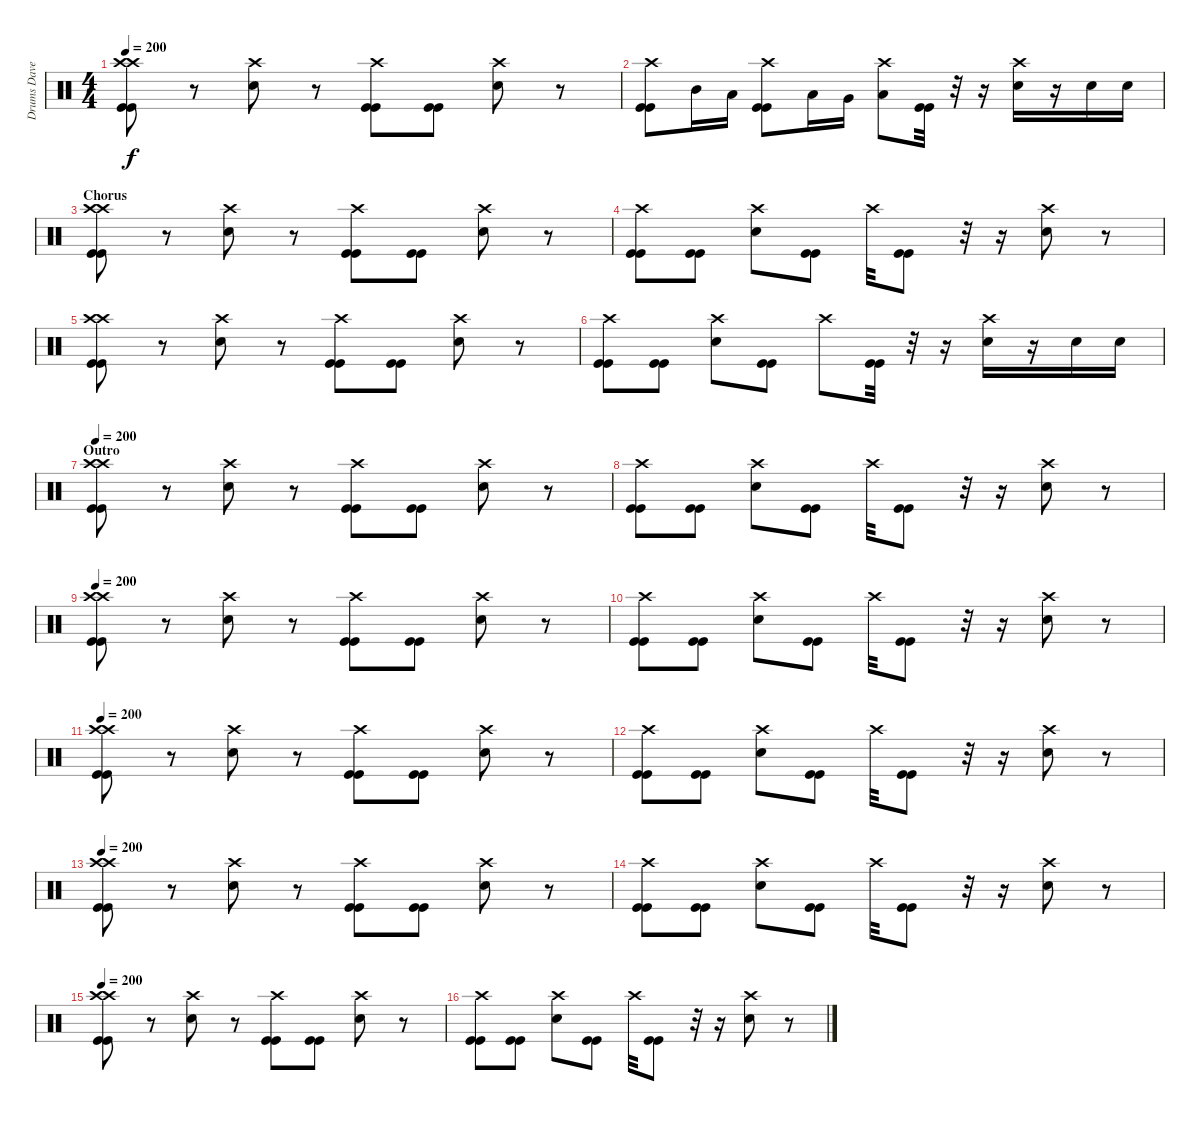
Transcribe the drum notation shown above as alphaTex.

\track ("Drums Dave Grohl" "Drums Dave") {instrument percussion}
\staff {score}
\articulation defaults
\ts (4 4)
\tempo 200
\clef neutral
\ks c
("Crash high (hit)" "Crash high (hit)" "Kick (hit)" "Kick (hit)").8{dy f} r.8 ("Crash high (hit)" "Electric Snare (hit)").8 r.8 ("Crash high (hit)" "Kick (hit)" "Kick (hit)").8 ("Kick (hit)" "Kick (hit)").8 ("Crash high (hit)" "Electric Snare (hit)").8 r.8 |
("Crash high (hit)" "Kick (hit)" "Kick (hit)").8 "Mid Tom (hit)".16 "Low Tom (hit)".16 ("Crash high (hit)" "Kick (hit)" "Kick (hit)").8 "Low Tom (hit)".16 "Very Low Tom (hit)".16 ("Crash high (hit)" "Low Tom (hit)").8 ("Kick (hit)" "Kick (hit)").32 r.32 r.16 ("Crash high (hit)" "Electric Snare (hit)").16 r.16 "Electric Snare (hit)".16 "Electric Snare (hit)".16 |
\section ("" "Chorus")
("Crash high (hit)" "Crash high (hit)" "Kick (hit)" "Kick (hit)").8 r.8 ("Crash high (hit)" "Electric Snare (hit)").8 r.8 ("Crash high (hit)" "Kick (hit)" "Kick (hit)").8 ("Kick (hit)" "Kick (hit)").8 ("Crash high (hit)" "Electric Snare (hit)").8 r.8 |
("Crash high (hit)" "Kick (hit)" "Kick (hit)").8 ("Kick (hit)" "Kick (hit)").8 ("Crash high (hit)" "Electric Snare (hit)").8 ("Kick (hit)" "Kick (hit)").8 "Crash high (hit)".32 ("Kick (hit)" "Kick (hit)").8 r.32 r.16 ("Crash high (hit)" "Electric Snare (hit)").8 r.8 |
("Crash high (hit)" "Crash high (hit)" "Kick (hit)" "Kick (hit)").8 r.8 ("Crash high (hit)" "Electric Snare (hit)").8 r.8 ("Crash high (hit)" "Kick (hit)" "Kick (hit)").8 ("Kick (hit)" "Kick (hit)").8 ("Crash high (hit)" "Electric Snare (hit)").8 r.8 |
("Crash high (hit)" "Kick (hit)" "Kick (hit)").8 ("Kick (hit)" "Kick (hit)").8 ("Crash high (hit)" "Electric Snare (hit)").8 ("Kick (hit)" "Kick (hit)").8 "Crash high (hit)".8 ("Kick (hit)" "Kick (hit)").32 r.32 r.16 ("Crash high (hit)" "Electric Snare (hit)").16 r.16 "Electric Snare (hit)".16 "Electric Snare (hit)".16 |
\section ("" "Outro")
\tempo 200
("Crash high (hit)" "Crash high (hit)" "Kick (hit)" "Kick (hit)").8 r.8 ("Crash high (hit)" "Electric Snare (hit)").8 r.8 ("Crash high (hit)" "Kick (hit)" "Kick (hit)").8 ("Kick (hit)" "Kick (hit)").8 ("Crash high (hit)" "Electric Snare (hit)").8 r.8 |
("Crash high (hit)" "Kick (hit)" "Kick (hit)").8 ("Kick (hit)" "Kick (hit)").8 ("Crash high (hit)" "Electric Snare (hit)").8 ("Kick (hit)" "Kick (hit)").8 "Crash high (hit)".32 ("Kick (hit)" "Kick (hit)").8 r.32 r.16 ("Crash high (hit)" "Electric Snare (hit)").8 r.8 |
\tempo 200
("Crash high (hit)" "Crash high (hit)" "Kick (hit)" "Kick (hit)").8 r.8 ("Crash high (hit)" "Electric Snare (hit)").8 r.8 ("Crash high (hit)" "Kick (hit)" "Kick (hit)").8 ("Kick (hit)" "Kick (hit)").8 ("Crash high (hit)" "Electric Snare (hit)").8 r.8 |
("Crash high (hit)" "Kick (hit)" "Kick (hit)").8 ("Kick (hit)" "Kick (hit)").8 ("Crash high (hit)" "Electric Snare (hit)").8 ("Kick (hit)" "Kick (hit)").8 "Crash high (hit)".32 ("Kick (hit)" "Kick (hit)").8 r.32 r.16 ("Crash high (hit)" "Electric Snare (hit)").8 r.8 |
\tempo 200
("Crash high (hit)" "Crash high (hit)" "Kick (hit)" "Kick (hit)").8 r.8 ("Crash high (hit)" "Electric Snare (hit)").8 r.8 ("Crash high (hit)" "Kick (hit)" "Kick (hit)").8 ("Kick (hit)" "Kick (hit)").8 ("Crash high (hit)" "Electric Snare (hit)").8 r.8 |
("Crash high (hit)" "Kick (hit)" "Kick (hit)").8 ("Kick (hit)" "Kick (hit)").8 ("Crash high (hit)" "Electric Snare (hit)").8 ("Kick (hit)" "Kick (hit)").8 "Crash high (hit)".32 ("Kick (hit)" "Kick (hit)").8 r.32 r.16 ("Crash high (hit)" "Electric Snare (hit)").8 r.8 |
\tempo 200
("Crash high (hit)" "Crash high (hit)" "Kick (hit)" "Kick (hit)").8 r.8 ("Crash high (hit)" "Electric Snare (hit)").8 r.8 ("Crash high (hit)" "Kick (hit)" "Kick (hit)").8 ("Kick (hit)" "Kick (hit)").8 ("Crash high (hit)" "Electric Snare (hit)").8 r.8 |
("Crash high (hit)" "Kick (hit)" "Kick (hit)").8 ("Kick (hit)" "Kick (hit)").8 ("Crash high (hit)" "Electric Snare (hit)").8 ("Kick (hit)" "Kick (hit)").8 "Crash high (hit)".32 ("Kick (hit)" "Kick (hit)").8 r.32 r.16 ("Crash high (hit)" "Electric Snare (hit)").8 r.8 |
\tempo 200
("Crash high (hit)" "Crash high (hit)" "Kick (hit)" "Kick (hit)").8 r.8 ("Crash high (hit)" "Electric Snare (hit)").8 r.8 ("Crash high (hit)" "Kick (hit)" "Kick (hit)").8 ("Kick (hit)" "Kick (hit)").8 ("Crash high (hit)" "Electric Snare (hit)").8 r.8 |
("Crash high (hit)" "Kick (hit)" "Kick (hit)").8 ("Kick (hit)" "Kick (hit)").8 ("Crash high (hit)" "Electric Snare (hit)").8 ("Kick (hit)" "Kick (hit)").8 "Crash high (hit)".32 ("Kick (hit)" "Kick (hit)").8 r.32 r.16 ("Crash high (hit)" "Electric Snare (hit)").8 r.8
